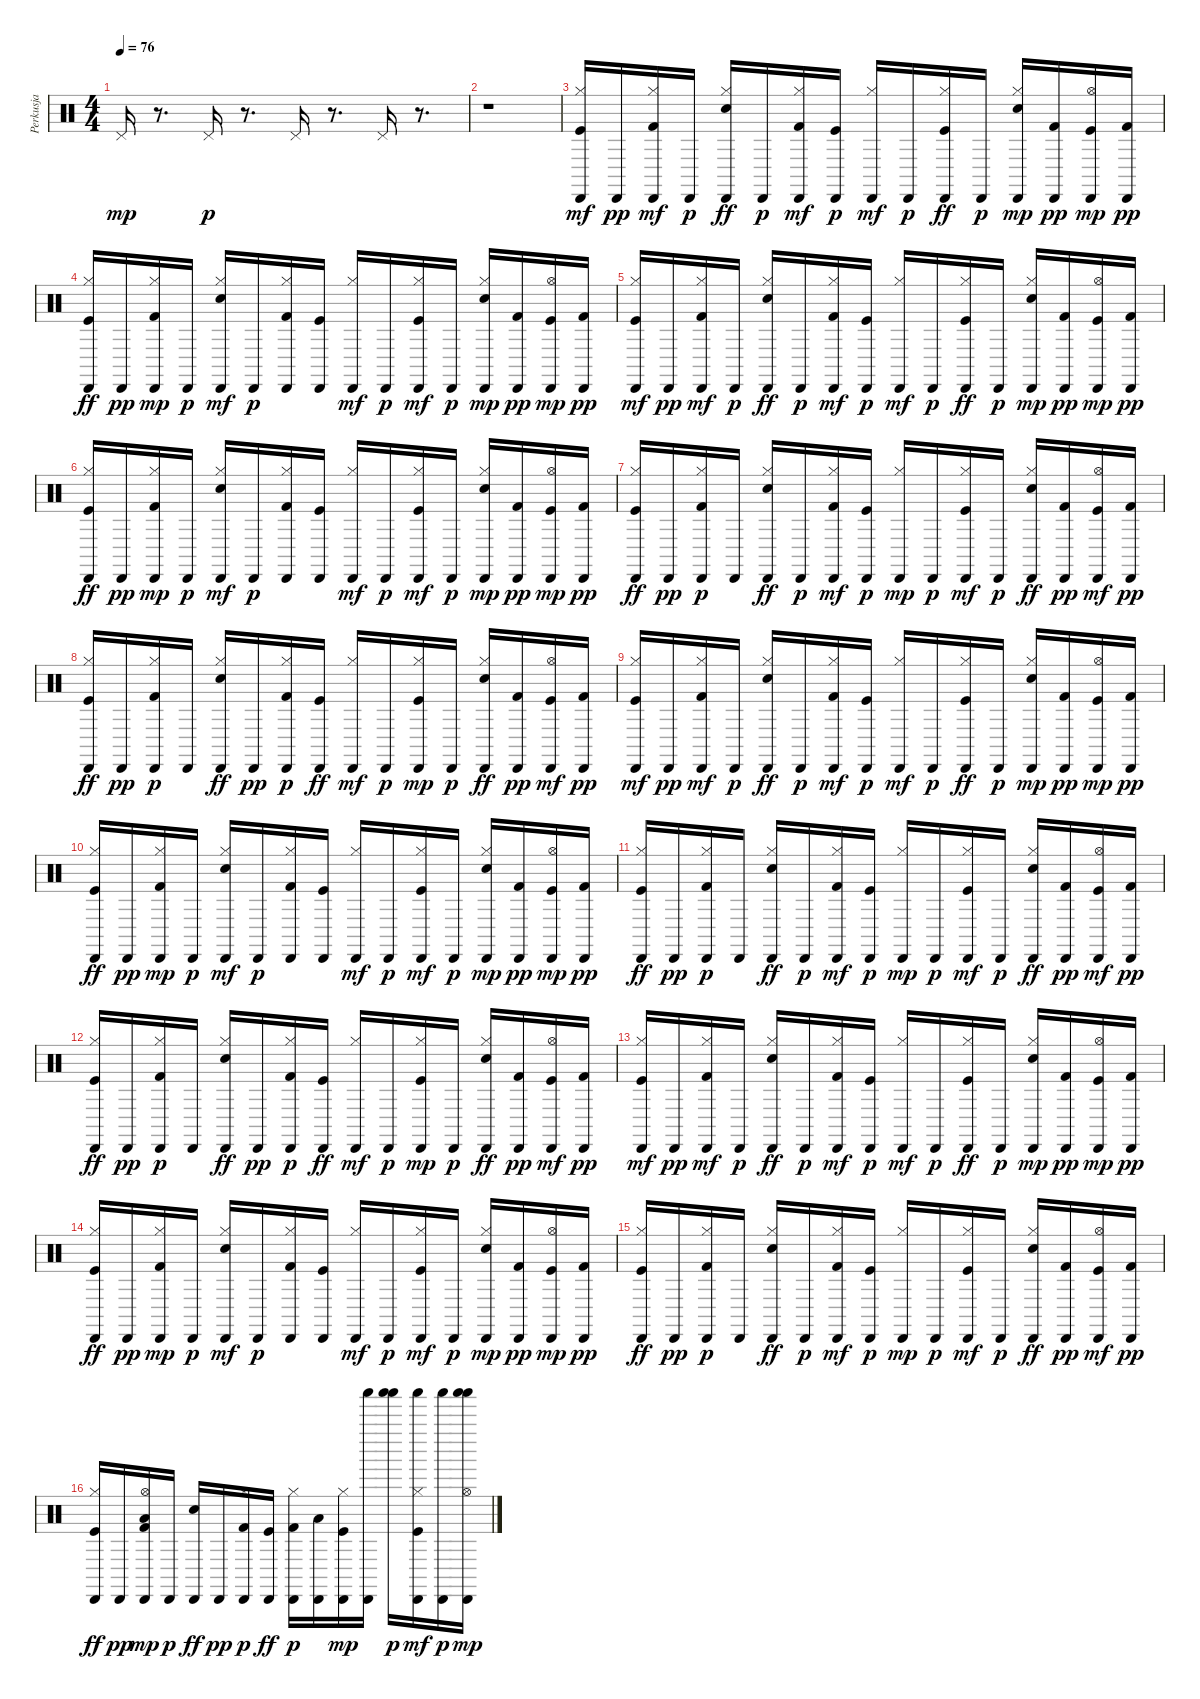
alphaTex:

\track ("Perkusja" "Perkusja") {instrument percussion}
\staff {score}
\articulation defaults
\ts (4 4)
\tempo 76
\clef neutral
\ks c "Pedal Hi-Hat (hit)".16{dy mp}
r.8{d} "Pedal Hi-Hat (hit)".16{dy p} r.8{d} "Pedal Hi-Hat (hit)".16 r.8{d} "Pedal Hi-Hat (hit)".16 r.8{d} |
r.1 |
("Cabasa (hit)" "Kick (hit)" "Hi-Hat (closed)").16{dy mf} "Cabasa (hit)".16{dy pp} ("Cabasa (hit)" "Kick (hit) 2" "Hi-Hat (closed)").16{dy mf} "Cabasa (hit)".16{dy p} ("Cabasa (hit)" "Hi-Hat (closed)" "Snare (hit) 2").16{dy ff} "Cabasa (hit)".16{dy p} ("Cabasa (hit)" "Kick (hit) 2" "Hi-Hat (closed)").16{dy mf} ("Cabasa (hit)" "Kick (hit)").16{dy p} ("Cabasa (hit)" "Hi-Hat (closed)").16{dy mf} "Cabasa (hit)".16{dy p} ("Cabasa (hit)" "Hi-Hat (closed)" "Kick (hit)").16{dy ff} "Cabasa (hit)".16{dy p} ("Cabasa (hit)" "Snare (hit) 2" "Hi-Hat (closed)").16{dy mp} ("Cabasa (hit)" "Kick (hit) 2").16{dy pp} ("Kick (hit)" "Hi-Hat (open)" "Cabasa (hit)").16{dy mp} ("Cabasa (hit)" "Kick (hit) 2").16{dy pp} |
("Cabasa (hit)" "Hi-Hat (closed)" "Kick (hit)").16{dy ff} "Cabasa (hit)".16{dy pp} ("Cabasa (hit)" "Kick (hit) 2" "Hi-Hat (closed)").16{dy mp} "Cabasa (hit)".16{dy p} ("Cabasa (hit)" "Snare (hit) 2" "Hi-Hat (closed)").16{dy mf} "Cabasa (hit)".16{dy p} ("Cabasa (hit)" "Hi-Hat (closed)" "Kick (hit) 2").16 ("Cabasa (hit)" "Kick (hit)").16 ("Cabasa (hit)" "Hi-Hat (closed)").16{dy mf} "Cabasa (hit)".16{dy p} ("Cabasa (hit)" "Hi-Hat (closed)" "Kick (hit)").16{dy mf} "Cabasa (hit)".16{dy p} ("Cabasa (hit)" "Hi-Hat (closed)" "Snare (hit) 2").16{dy mp} ("Cabasa (hit)" "Kick (hit) 2").16{dy pp} ("Kick (hit)" "Hi-Hat (open)" "Cabasa (hit)").16{dy mp} ("Cabasa (hit)" "Kick (hit) 2").16{dy pp} |
("Cabasa (hit)" "Kick (hit)" "Hi-Hat (closed)").16{dy mf} "Cabasa (hit)".16{dy pp} ("Cabasa (hit)" "Kick (hit) 2" "Hi-Hat (closed)").16{dy mf} "Cabasa (hit)".16{dy p} ("Cabasa (hit)" "Hi-Hat (closed)" "Snare (hit) 2").16{dy ff} "Cabasa (hit)".16{dy p} ("Cabasa (hit)" "Kick (hit) 2" "Hi-Hat (closed)").16{dy mf} ("Cabasa (hit)" "Kick (hit)").16{dy p} ("Cabasa (hit)" "Hi-Hat (closed)").16{dy mf} "Cabasa (hit)".16{dy p} ("Cabasa (hit)" "Hi-Hat (closed)" "Kick (hit)").16{dy ff} "Cabasa (hit)".16{dy p} ("Cabasa (hit)" "Snare (hit) 2" "Hi-Hat (closed)").16{dy mp} ("Cabasa (hit)" "Kick (hit) 2").16{dy pp} ("Kick (hit)" "Hi-Hat (open)" "Cabasa (hit)").16{dy mp} ("Cabasa (hit)" "Kick (hit) 2").16{dy pp} |
("Cabasa (hit)" "Hi-Hat (closed)" "Kick (hit)").16{dy ff} "Cabasa (hit)".16{dy pp} ("Cabasa (hit)" "Kick (hit) 2" "Hi-Hat (closed)").16{dy mp} "Cabasa (hit)".16{dy p} ("Cabasa (hit)" "Snare (hit) 2" "Hi-Hat (closed)").16{dy mf} "Cabasa (hit)".16{dy p} ("Cabasa (hit)" "Hi-Hat (closed)" "Kick (hit) 2").16 ("Cabasa (hit)" "Kick (hit)").16 ("Cabasa (hit)" "Hi-Hat (closed)").16{dy mf} "Cabasa (hit)".16{dy p} ("Cabasa (hit)" "Hi-Hat (closed)" "Kick (hit)").16{dy mf} "Cabasa (hit)".16{dy p} ("Cabasa (hit)" "Hi-Hat (closed)" "Snare (hit) 2").16{dy mp} ("Cabasa (hit)" "Kick (hit) 2").16{dy pp} ("Kick (hit)" "Hi-Hat (open)" "Cabasa (hit)").16{dy mp} ("Cabasa (hit)" "Kick (hit) 2").16{dy pp} |
("Cabasa (hit)" "Hi-Hat (closed)" "Kick (hit)").16{dy ff} "Cabasa (hit)".16{dy pp} ("Cabasa (hit)" "Hi-Hat (closed)" "Kick (hit) 2").16{dy p} "Cabasa (hit)".16 ("Cabasa (hit)" "Hi-Hat (closed)" "Snare (hit) 2").16{dy ff} "Cabasa (hit)".16{dy p} ("Cabasa (hit)" "Kick (hit) 2" "Hi-Hat (closed)").16{dy mf} ("Cabasa (hit)" "Kick (hit)").16{dy p} ("Cabasa (hit)" "Hi-Hat (closed)").16{dy mp} "Cabasa (hit)".16{dy p} ("Cabasa (hit)" "Hi-Hat (closed)" "Kick (hit)").16{dy mf} "Cabasa (hit)".16{dy p} ("Cabasa (hit)" "Hi-Hat (closed)" "Snare (hit) 2").16{dy ff} ("Cabasa (hit)" "Kick (hit) 2").16{dy pp} ("Cabasa (hit)" "Kick (hit)" "Hi-Hat (open)").16{dy mf} ("Cabasa (hit)" "Kick (hit) 2").16{dy pp} |
("Cabasa (hit)" "Hi-Hat (closed)" "Kick (hit)").16{dy ff} "Cabasa (hit)".16{dy pp} ("Cabasa (hit)" "Hi-Hat (closed)" "Kick (hit) 2").16{dy p} "Cabasa (hit)".16 ("Hi-Hat (closed)" "Cabasa (hit)" "Snare (hit) 2").16{dy ff} "Cabasa (hit)".16{dy pp} ("Hi-Hat (closed)" "Cabasa (hit)" "Kick (hit) 2").16{dy p} ("Cabasa (hit)" "Kick (hit)").16{dy ff} ("Cabasa (hit)" "Hi-Hat (closed)").16{dy mf} "Cabasa (hit)".16{dy p} ("Cabasa (hit)" "Hi-Hat (closed)" "Kick (hit)").16{dy mp} "Cabasa (hit)".16{dy p} ("Cabasa (hit)" "Hi-Hat (closed)" "Snare (hit) 2").16{dy ff} ("Cabasa (hit)" "Kick (hit) 2").16{dy pp} ("Cabasa (hit)" "Kick (hit)" "Hi-Hat (open)").16{dy mf} ("Cabasa (hit)" "Kick (hit) 2").16{dy pp} |
("Cabasa (hit)" "Kick (hit)" "Hi-Hat (closed)").16{dy mf} "Cabasa (hit)".16{dy pp} ("Cabasa (hit)" "Kick (hit) 2" "Hi-Hat (closed)").16{dy mf} "Cabasa (hit)".16{dy p} ("Cabasa (hit)" "Hi-Hat (closed)" "Snare (hit) 2").16{dy ff} "Cabasa (hit)".16{dy p} ("Cabasa (hit)" "Kick (hit) 2" "Hi-Hat (closed)").16{dy mf} ("Cabasa (hit)" "Kick (hit)").16{dy p} ("Cabasa (hit)" "Hi-Hat (closed)").16{dy mf} "Cabasa (hit)".16{dy p} ("Cabasa (hit)" "Hi-Hat (closed)" "Kick (hit)").16{dy ff} "Cabasa (hit)".16{dy p} ("Cabasa (hit)" "Snare (hit) 2" "Hi-Hat (closed)").16{dy mp} ("Cabasa (hit)" "Kick (hit) 2").16{dy pp} ("Kick (hit)" "Hi-Hat (open)" "Cabasa (hit)").16{dy mp} ("Cabasa (hit)" "Kick (hit) 2").16{dy pp} |
("Cabasa (hit)" "Hi-Hat (closed)" "Kick (hit)").16{dy ff} "Cabasa (hit)".16{dy pp} ("Cabasa (hit)" "Kick (hit) 2" "Hi-Hat (closed)").16{dy mp} "Cabasa (hit)".16{dy p} ("Cabasa (hit)" "Snare (hit) 2" "Hi-Hat (closed)").16{dy mf} "Cabasa (hit)".16{dy p} ("Cabasa (hit)" "Hi-Hat (closed)" "Kick (hit) 2").16 ("Cabasa (hit)" "Kick (hit)").16 ("Cabasa (hit)" "Hi-Hat (closed)").16{dy mf} "Cabasa (hit)".16{dy p} ("Cabasa (hit)" "Hi-Hat (closed)" "Kick (hit)").16{dy mf} "Cabasa (hit)".16{dy p} ("Cabasa (hit)" "Hi-Hat (closed)" "Snare (hit) 2").16{dy mp} ("Cabasa (hit)" "Kick (hit) 2").16{dy pp} ("Kick (hit)" "Hi-Hat (open)" "Cabasa (hit)").16{dy mp} ("Cabasa (hit)" "Kick (hit) 2").16{dy pp} |
("Cabasa (hit)" "Hi-Hat (closed)" "Kick (hit)").16{dy ff} "Cabasa (hit)".16{dy pp} ("Cabasa (hit)" "Hi-Hat (closed)" "Kick (hit) 2").16{dy p} "Cabasa (hit)".16 ("Cabasa (hit)" "Hi-Hat (closed)" "Snare (hit) 2").16{dy ff} "Cabasa (hit)".16{dy p} ("Cabasa (hit)" "Kick (hit) 2" "Hi-Hat (closed)").16{dy mf} ("Cabasa (hit)" "Kick (hit)").16{dy p} ("Cabasa (hit)" "Hi-Hat (closed)").16{dy mp} "Cabasa (hit)".16{dy p} ("Cabasa (hit)" "Hi-Hat (closed)" "Kick (hit)").16{dy mf} "Cabasa (hit)".16{dy p} ("Cabasa (hit)" "Hi-Hat (closed)" "Snare (hit) 2").16{dy ff} ("Cabasa (hit)" "Kick (hit) 2").16{dy pp} ("Cabasa (hit)" "Kick (hit)" "Hi-Hat (open)").16{dy mf} ("Cabasa (hit)" "Kick (hit) 2").16{dy pp} |
("Cabasa (hit)" "Hi-Hat (closed)" "Kick (hit)").16{dy ff} "Cabasa (hit)".16{dy pp} ("Cabasa (hit)" "Hi-Hat (closed)" "Kick (hit) 2").16{dy p} "Cabasa (hit)".16 ("Hi-Hat (closed)" "Cabasa (hit)" "Snare (hit) 2").16{dy ff} "Cabasa (hit)".16{dy pp} ("Hi-Hat (closed)" "Cabasa (hit)" "Kick (hit) 2").16{dy p} ("Cabasa (hit)" "Kick (hit)").16{dy ff} ("Cabasa (hit)" "Hi-Hat (closed)").16{dy mf} "Cabasa (hit)".16{dy p} ("Cabasa (hit)" "Hi-Hat (closed)" "Kick (hit)").16{dy mp} "Cabasa (hit)".16{dy p} ("Cabasa (hit)" "Hi-Hat (closed)" "Snare (hit) 2").16{dy ff} ("Cabasa (hit)" "Kick (hit) 2").16{dy pp} ("Cabasa (hit)" "Kick (hit)" "Hi-Hat (open)").16{dy mf} ("Cabasa (hit)" "Kick (hit) 2").16{dy pp} |
("Cabasa (hit)" "Kick (hit)" "Hi-Hat (closed)").16{dy mf} "Cabasa (hit)".16{dy pp} ("Cabasa (hit)" "Kick (hit) 2" "Hi-Hat (closed)").16{dy mf} "Cabasa (hit)".16{dy p} ("Cabasa (hit)" "Hi-Hat (closed)" "Snare (hit) 2").16{dy ff} "Cabasa (hit)".16{dy p} ("Cabasa (hit)" "Kick (hit) 2" "Hi-Hat (closed)").16{dy mf} ("Cabasa (hit)" "Kick (hit)").16{dy p} ("Cabasa (hit)" "Hi-Hat (closed)").16{dy mf} "Cabasa (hit)".16{dy p} ("Cabasa (hit)" "Hi-Hat (closed)" "Kick (hit)").16{dy ff} "Cabasa (hit)".16{dy p} ("Cabasa (hit)" "Snare (hit) 2" "Hi-Hat (closed)").16{dy mp} ("Cabasa (hit)" "Kick (hit) 2").16{dy pp} ("Kick (hit)" "Hi-Hat (open)" "Cabasa (hit)").16{dy mp} ("Cabasa (hit)" "Kick (hit) 2").16{dy pp} |
("Cabasa (hit)" "Hi-Hat (closed)" "Kick (hit)").16{dy ff} "Cabasa (hit)".16{dy pp} ("Cabasa (hit)" "Kick (hit) 2" "Hi-Hat (closed)").16{dy mp} "Cabasa (hit)".16{dy p} ("Cabasa (hit)" "Snare (hit) 2" "Hi-Hat (closed)").16{dy mf} "Cabasa (hit)".16{dy p} ("Cabasa (hit)" "Hi-Hat (closed)" "Kick (hit) 2").16 ("Cabasa (hit)" "Kick (hit)").16 ("Cabasa (hit)" "Hi-Hat (closed)").16{dy mf} "Cabasa (hit)".16{dy p} ("Cabasa (hit)" "Hi-Hat (closed)" "Kick (hit)").16{dy mf} "Cabasa (hit)".16{dy p} ("Cabasa (hit)" "Hi-Hat (closed)" "Snare (hit) 2").16{dy mp} ("Cabasa (hit)" "Kick (hit) 2").16{dy pp} ("Kick (hit)" "Hi-Hat (open)" "Cabasa (hit)").16{dy mp} ("Cabasa (hit)" "Kick (hit) 2").16{dy pp} |
("Cabasa (hit)" "Hi-Hat (closed)" "Kick (hit)").16{dy ff} "Cabasa (hit)".16{dy pp} ("Cabasa (hit)" "Hi-Hat (closed)" "Kick (hit) 2").16{dy p} "Cabasa (hit)".16 ("Cabasa (hit)" "Hi-Hat (closed)" "Snare (hit) 2").16{dy ff} "Cabasa (hit)".16{dy p} ("Cabasa (hit)" "Kick (hit) 2" "Hi-Hat (closed)").16{dy mf} ("Cabasa (hit)" "Kick (hit)").16{dy p} ("Cabasa (hit)" "Hi-Hat (closed)").16{dy mp} "Cabasa (hit)".16{dy p} ("Cabasa (hit)" "Hi-Hat (closed)" "Kick (hit)").16{dy mf} "Cabasa (hit)".16{dy p} ("Cabasa (hit)" "Hi-Hat (closed)" "Snare (hit) 2").16{dy ff} ("Cabasa (hit)" "Kick (hit) 2").16{dy pp} ("Cabasa (hit)" "Kick (hit)" "Hi-Hat (open)").16{dy mf} ("Cabasa (hit)" "Kick (hit) 2").16{dy pp} |
("Cabasa (hit)" "Hi-Hat (closed)" "Kick (hit)").16{dy ff} "Cabasa (hit)".16{dy pp} ("Low Floor Tom (hit)" "Cabasa (hit)" "Kick (hit) 2" "Hi-Hat (open)").16{dy mp} "Cabasa (hit)".16{dy p} ("Cabasa (hit)" "Snare (hit) 2").16{dy ff} "Cabasa (hit)".16{dy pp} ("Hi-Hat (closed)" "Cabasa (hit)" "Kick (hit) 2").16{dy p} ("Cabasa (hit)" "Kick (hit)").16{dy ff} ("Cabasa (hit)" "Hi-Hat (closed)" "Kick (hit) 2").16{dy p} ("Low Floor Tom (hit)" "Cabasa (hit)").16 ("Cabasa (hit)" "Hi-Hat (closed)" "Kick (hit)").16{dy mp} ("Cabasa (hit)" "Shaker (hit)").16 ("Shaker (hit)" "Shaker (hit)").16{dy p} ("Cabasa (hit)" "Hi-Hat (closed)" "Kick (hit)" "Shaker (hit)").16{dy mf} ("Cabasa (hit)" "Shaker (hit)").16{dy p} ("Cabasa (hit)" "Shaker (hit)" "Hi-Hat (open)" "Shaker (hit)").16{dy mp}
